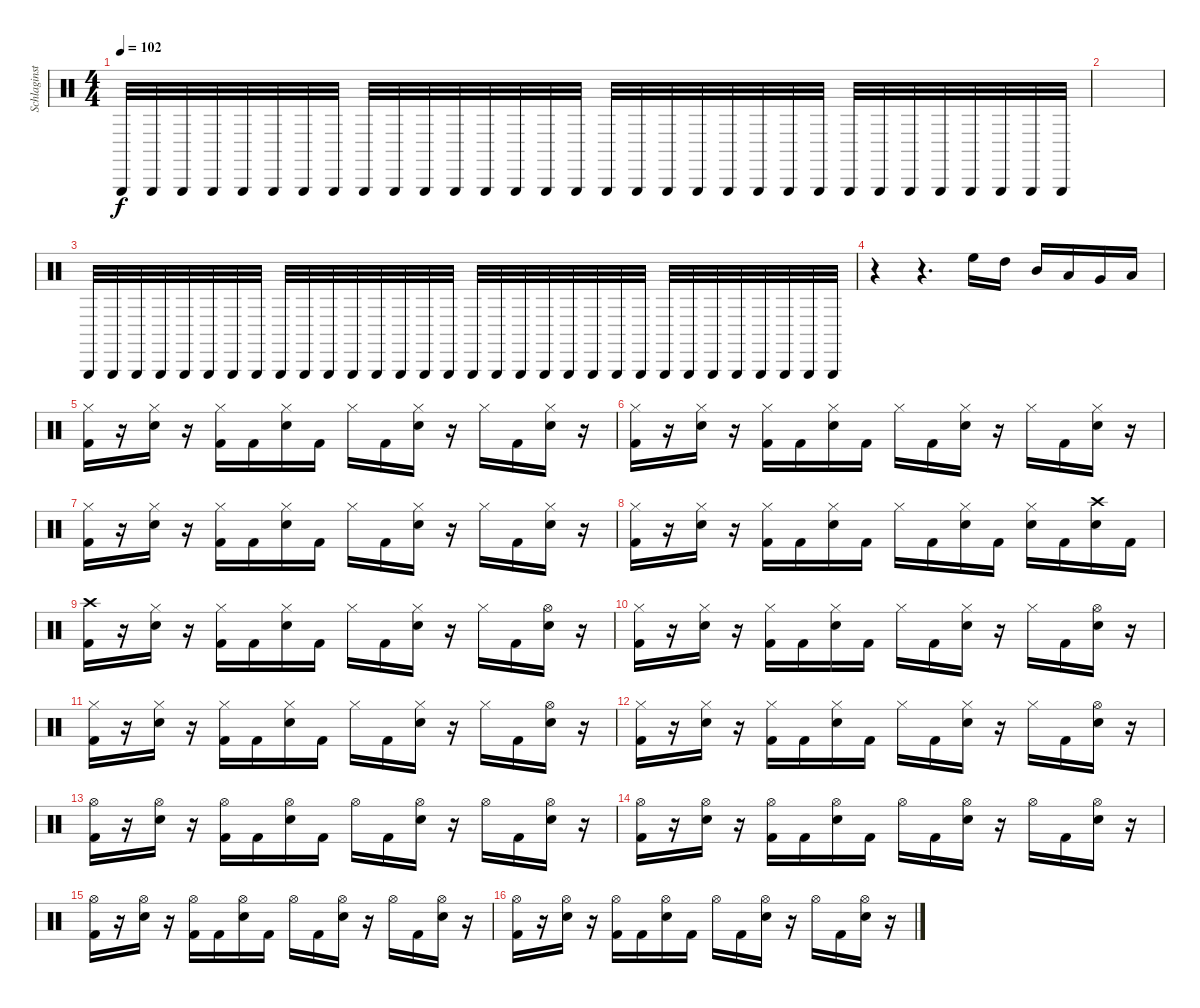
\track ("Schlaginstrumente - Auswahl" "Schlaginst") {instrument percussion}
\staff {score}
\articulation defaults
\ts (4 4)
\tempo 102
\clef neutral
\ks c "Triangle (hit)".32{dy f} "Triangle (hit)".32 "Triangle (hit)".32 "Triangle (hit)".32 "Triangle (hit)".32 "Triangle (hit)".32 "Triangle (hit)".32 "Triangle (hit)".32 "Triangle (hit)".32 "Triangle (hit)".32 "Triangle (hit)".32 "Triangle (hit)".32 "Triangle (hit)".32 "Triangle (hit)".32 "Triangle (hit)".32 "Triangle (hit)".32 "Triangle (hit)".32 "Triangle (hit)".32 "Triangle (hit)".32 "Triangle (hit)".32 "Triangle (hit)".32 "Triangle (hit)".32 "Triangle (hit)".32 "Triangle (hit)".32 "Triangle (hit)".32 "Triangle (hit)".32 "Triangle (hit)".32 "Triangle (hit)".32 "Triangle (hit)".32 "Triangle (hit)".32 "Triangle (hit)".32 "Triangle (hit)".32
|
|
"Triangle (hit)".32 "Triangle (hit)".32 "Triangle (hit)".32 "Triangle (hit)".32 "Triangle (hit)".32 "Triangle (hit)".32 "Triangle (hit)".32 "Triangle (hit)".32 "Triangle (hit)".32 "Triangle (hit)".32 "Triangle (hit)".32 "Triangle (hit)".32 "Triangle (hit)".32 "Triangle (hit)".32 "Triangle (hit)".32 "Triangle (hit)".32 "Triangle (hit)".32 "Triangle (hit)".32 "Triangle (hit)".32 "Triangle (hit)".32 "Triangle (hit)".32 "Triangle (hit)".32 "Triangle (hit)".32 "Triangle (hit)".32 "Triangle (hit)".32 "Triangle (hit)".32 "Triangle (hit)".32 "Triangle (hit)".32 "Triangle (hit)".32 "Triangle (hit)".32 "Triangle (hit)".32 "Triangle (hit)".32 |
r.4 r.4{d} "High Floor Tom (hit)".16 "High Tom (hit)".16 "Mid Tom (hit)".16 "Low Tom (hit)".16 "Very Low Tom (hit)".16 "Low Floor Tom (hit)".16 |
("Hi-Hat (closed)" "Kick (hit) 2").16 r.16 ("Hi-Hat (closed)" "Snare (hit) 2").16 r.16 ("Hi-Hat (closed)" "Kick (hit) 2").16 "Kick (hit) 2".16 ("Hi-Hat (closed)" "Snare (hit) 2").16 "Kick (hit) 2".16 "Hi-Hat (closed)".16 "Kick (hit) 2".16 ("Hi-Hat (closed)" "Snare (hit) 2").16 r.16 "Hi-Hat (closed)".16 "Kick (hit) 2".16 ("Hi-Hat (closed)" "Snare (hit) 2").16 r.16 |
("Hi-Hat (closed)" "Kick (hit) 2").16 r.16 ("Hi-Hat (closed)" "Snare (hit) 2").16 r.16 ("Hi-Hat (closed)" "Kick (hit) 2").16 "Kick (hit) 2".16 ("Hi-Hat (closed)" "Snare (hit) 2").16 "Kick (hit) 2".16 "Hi-Hat (closed)".16 "Kick (hit) 2".16 ("Hi-Hat (closed)" "Snare (hit) 2").16 r.16 "Hi-Hat (closed)".16 "Kick (hit) 2".16 ("Hi-Hat (closed)" "Snare (hit) 2").16 r.16 |
("Hi-Hat (closed)" "Kick (hit) 2").16 r.16 ("Hi-Hat (closed)" "Snare (hit) 2").16 r.16 ("Hi-Hat (closed)" "Kick (hit) 2").16 "Kick (hit) 2".16 ("Hi-Hat (closed)" "Snare (hit) 2").16 "Kick (hit) 2".16 "Hi-Hat (closed)".16 "Kick (hit) 2".16 ("Hi-Hat (closed)" "Snare (hit) 2").16 r.16 "Hi-Hat (closed)".16 "Kick (hit) 2".16 ("Hi-Hat (closed)" "Snare (hit) 2").16 r.16 |
("Hi-Hat (closed)" "Kick (hit) 2").16 r.16 ("Hi-Hat (closed)" "Snare (hit) 2").16 r.16 ("Hi-Hat (closed)" "Kick (hit) 2").16 "Kick (hit) 2".16 ("Hi-Hat (closed)" "Snare (hit) 2").16 "Kick (hit) 2".16 "Hi-Hat (closed)".16 "Kick (hit) 2".16 ("Hi-Hat (closed)" "Snare (hit) 2").16 "Kick (hit) 2".16 ("Hi-Hat (closed)" "Snare (hit) 2").16 "Kick (hit) 2".16 ("Crash high (hit)" "Snare (hit) 2").16 "Kick (hit) 2".16 |
("Crash high (hit)" "Kick (hit) 2").16 r.16 ("Hi-Hat (closed)" "Snare (hit) 2").16 r.16 ("Hi-Hat (closed)" "Kick (hit) 2").16 "Kick (hit) 2".16 ("Hi-Hat (closed)" "Snare (hit) 2").16 "Kick (hit) 2".16 "Hi-Hat (closed)".16 "Kick (hit) 2".16 ("Hi-Hat (closed)" "Snare (hit) 2").16 r.16 "Hi-Hat (closed)".16 "Kick (hit) 2".16 ("Hi-Hat (open)" "Snare (hit) 2").16 r.16 |
("Hi-Hat (closed)" "Kick (hit) 2").16 r.16 ("Hi-Hat (closed)" "Snare (hit) 2").16 r.16 ("Hi-Hat (closed)" "Kick (hit) 2").16 "Kick (hit) 2".16 ("Hi-Hat (closed)" "Snare (hit) 2").16 "Kick (hit) 2".16 "Hi-Hat (closed)".16 "Kick (hit) 2".16 ("Hi-Hat (closed)" "Snare (hit) 2").16 r.16 "Hi-Hat (closed)".16 "Kick (hit) 2".16 ("Hi-Hat (open)" "Snare (hit) 2").16 r.16 |
("Hi-Hat (closed)" "Kick (hit) 2").16 r.16 ("Hi-Hat (closed)" "Snare (hit) 2").16 r.16 ("Hi-Hat (closed)" "Kick (hit) 2").16 "Kick (hit) 2".16 ("Hi-Hat (closed)" "Snare (hit) 2").16 "Kick (hit) 2".16 "Hi-Hat (closed)".16 "Kick (hit) 2".16 ("Hi-Hat (closed)" "Snare (hit) 2").16 r.16 "Hi-Hat (closed)".16 "Kick (hit) 2".16 ("Hi-Hat (open)" "Snare (hit) 2").16 r.16 |
("Hi-Hat (closed)" "Kick (hit) 2").16 r.16 ("Hi-Hat (closed)" "Snare (hit) 2").16 r.16 ("Hi-Hat (closed)" "Kick (hit) 2").16 "Kick (hit) 2".16 ("Hi-Hat (closed)" "Snare (hit) 2").16 "Kick (hit) 2".16 "Hi-Hat (closed)".16 "Kick (hit) 2".16 ("Hi-Hat (closed)" "Snare (hit) 2").16 r.16 "Hi-Hat (closed)".16 "Kick (hit) 2".16 ("Hi-Hat (open)" "Snare (hit) 2").16 r.16 |
("Hi-Hat (open)" "Kick (hit) 2").16 r.16 ("Hi-Hat (open)" "Snare (hit) 2").16 r.16 ("Hi-Hat (open)" "Kick (hit) 2").16 "Kick (hit) 2".16 ("Hi-Hat (open)" "Snare (hit) 2").16 "Kick (hit) 2".16 "Hi-Hat (open)".16 "Kick (hit) 2".16 ("Hi-Hat (open)" "Snare (hit) 2").16 r.16 "Hi-Hat (open)".16 "Kick (hit) 2".16 ("Hi-Hat (open)" "Snare (hit) 2").16 r.16 |
("Hi-Hat (open)" "Kick (hit) 2").16 r.16 ("Hi-Hat (open)" "Snare (hit) 2").16 r.16 ("Hi-Hat (open)" "Kick (hit) 2").16 "Kick (hit) 2".16 ("Hi-Hat (open)" "Snare (hit) 2").16 "Kick (hit) 2".16 "Hi-Hat (open)".16 "Kick (hit) 2".16 ("Hi-Hat (open)" "Snare (hit) 2").16 r.16 "Hi-Hat (open)".16 "Kick (hit) 2".16 ("Hi-Hat (open)" "Snare (hit) 2").16 r.16 |
("Hi-Hat (open)" "Kick (hit) 2").16 r.16 ("Hi-Hat (open)" "Snare (hit) 2").16 r.16 ("Hi-Hat (open)" "Kick (hit) 2").16 "Kick (hit) 2".16 ("Hi-Hat (open)" "Snare (hit) 2").16 "Kick (hit) 2".16 "Hi-Hat (open)".16 "Kick (hit) 2".16 ("Hi-Hat (open)" "Snare (hit) 2").16 r.16 "Hi-Hat (open)".16 "Kick (hit) 2".16 ("Hi-Hat (open)" "Snare (hit) 2").16 r.16 |
("Hi-Hat (open)" "Kick (hit) 2").16 r.16 ("Hi-Hat (open)" "Snare (hit) 2").16 r.16 ("Hi-Hat (open)" "Kick (hit) 2").16 "Kick (hit) 2".16 ("Hi-Hat (open)" "Snare (hit) 2").16 "Kick (hit) 2".16 "Hi-Hat (open)".16 "Kick (hit) 2".16 ("Hi-Hat (open)" "Snare (hit) 2").16 r.16 "Hi-Hat (open)".16 "Kick (hit) 2".16 ("Hi-Hat (open)" "Snare (hit) 2").16 r.16
